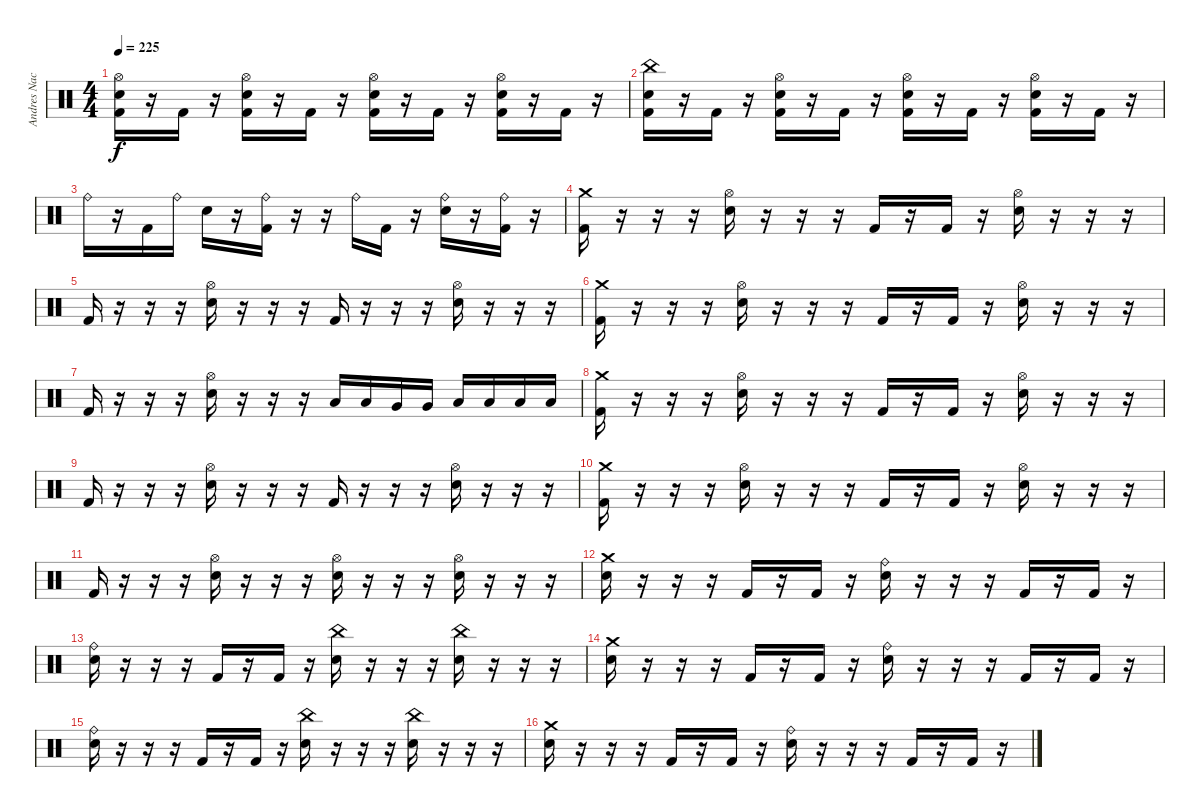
\track ("Andres Nacrur" "Andres Nac") {instrument percussion}
\staff {score}
\articulation defaults
\ts (4 4)
\tempo 225
\clef neutral
\ks c
("Hi-Hat (open)" "Snare (hit) 2" "Kick (hit) 2").16{dy f} r.16 "Kick (hit) 2".16 r.16 ("Hi-Hat (open)" "Snare (hit) 2" "Kick (hit) 2").16 r.16 "Kick (hit) 2".16 r.16 ("Hi-Hat (open)" "Snare (hit) 2" "Kick (hit) 2").16 r.16 "Kick (hit) 2".16 r.16 ("Hi-Hat (open)" "Snare (hit) 2" "Kick (hit) 2").16 r.16 "Kick (hit) 2".16 r.16 |
("China (hit)" "Snare (hit) 2" "Kick (hit) 2").16 r.16 "Kick (hit) 2".16 r.16 ("Hi-Hat (open)" "Snare (hit) 2" "Kick (hit) 2").16 r.16 "Kick (hit) 2".16 r.16 ("Hi-Hat (open)" "Snare (hit) 2" "Kick (hit) 2").16 r.16 "Kick (hit) 2".16 r.16 ("Hi-Hat (open)" "Snare (hit) 2" "Kick (hit) 2").16 r.16 "Kick (hit) 2".16 r.16 |
"Ride (bell)".16 r.16 "Kick (hit) 2".16 "Ride (bell)".16 "Snare (hit) 2".16 r.16 ("Ride (bell)" "Kick (hit) 2").16 r.16 r.16 "Ride (bell)".16 "Kick (hit) 2".16 r.16 ("Ride (bell)" "Snare (hit) 2").16 r.16 ("Ride (bell)" "Kick (hit) 2").16 r.16 |
("Crash medium (hit)" "Kick (hit) 2").16 r.16 r.16 r.16 ("Hi-Hat (open)" "Snare (hit) 2").16 r.16 r.16 r.16 "Kick (hit) 2".16 r.16 "Kick (hit) 2".16 r.16 ("Hi-Hat (open)" "Snare (hit) 2").16 r.16 r.16 r.16 |
"Kick (hit) 2".16 r.16 r.16 r.16 ("Hi-Hat (open)" "Snare (hit) 2").16 r.16 r.16 r.16 "Kick (hit) 2".16 r.16 r.16 r.16 ("Hi-Hat (open)" "Snare (hit) 2").16 r.16 r.16 r.16 |
("Crash medium (hit)" "Kick (hit) 2").16 r.16 r.16 r.16 ("Hi-Hat (open)" "Snare (hit) 2").16 r.16 r.16 r.16 "Kick (hit) 2".16 r.16 "Kick (hit) 2".16 r.16 ("Hi-Hat (open)" "Snare (hit) 2").16 r.16 r.16 r.16 |
"Kick (hit) 2".16 r.16 r.16 r.16 ("Hi-Hat (open)" "Snare (hit) 2").16 r.16 r.16 r.16 "Low Tom (hit)".16 "Low Tom (hit)".16 "Very Low Tom (hit)".16 "Very Low Tom (hit)".16 "Low Floor Tom (hit)".16 "Low Floor Tom (hit)".16 "Low Floor Tom (hit)".16 "Low Floor Tom (hit)".16 |
("Crash medium (hit)" "Kick (hit) 2").16 r.16 r.16 r.16 ("Hi-Hat (open)" "Snare (hit) 2").16 r.16 r.16 r.16 "Kick (hit) 2".16 r.16 "Kick (hit) 2".16 r.16 ("Hi-Hat (open)" "Snare (hit) 2").16 r.16 r.16 r.16 |
"Kick (hit) 2".16 r.16 r.16 r.16 ("Hi-Hat (open)" "Snare (hit) 2").16 r.16 r.16 r.16 "Kick (hit) 2".16 r.16 r.16 r.16 ("Hi-Hat (open)" "Snare (hit) 2").16 r.16 r.16 r.16 |
("Crash medium (hit)" "Kick (hit) 2").16 r.16 r.16 r.16 ("Hi-Hat (open)" "Snare (hit) 2").16 r.16 r.16 r.16 "Kick (hit) 2".16 r.16 "Kick (hit) 2".16 r.16 ("Hi-Hat (open)" "Snare (hit) 2").16 r.16 r.16 r.16 |
"Kick (hit) 2".16 r.16 r.16 r.16 ("Hi-Hat (open)" "Snare (hit) 2").16 r.16 r.16 r.16 ("Hi-Hat (open)" "Snare (hit) 2").16 r.16 r.16 r.16 ("Hi-Hat (open)" "Snare (hit) 2").16 r.16 r.16 r.16 |
("Crash medium (hit)" "Snare (hit) 2").16 r.16 r.16 r.16 "Kick (hit) 2".16 r.16 "Kick (hit) 2".16 r.16 ("Ride (bell)" "Snare (hit) 2").16 r.16 r.16 r.16 "Kick (hit) 2".16 r.16 "Kick (hit) 2".16 r.16 |
("Ride (bell)" "Snare (hit) 2").16 r.16 r.16 r.16 "Kick (hit) 2".16 r.16 "Kick (hit) 2".16 r.16 ("China (hit)" "Snare (hit) 2").16 r.16 r.16 r.16 ("China (hit)" "Snare (hit) 2").16 r.16 r.16 r.16 |
("Crash medium (hit)" "Snare (hit) 2").16 r.16 r.16 r.16 "Kick (hit) 2".16 r.16 "Kick (hit) 2".16 r.16 ("Ride (bell)" "Snare (hit) 2").16 r.16 r.16 r.16 "Kick (hit) 2".16 r.16 "Kick (hit) 2".16 r.16 |
("Ride (bell)" "Snare (hit) 2").16 r.16 r.16 r.16 "Kick (hit) 2".16 r.16 "Kick (hit) 2".16 r.16 ("China (hit)" "Snare (hit) 2").16 r.16 r.16 r.16 ("China (hit)" "Snare (hit) 2").16 r.16 r.16 r.16 |
("Crash medium (hit)" "Snare (hit) 2").16 r.16 r.16 r.16 "Kick (hit) 2".16 r.16 "Kick (hit) 2".16 r.16 ("Ride (bell)" "Snare (hit) 2").16 r.16 r.16 r.16 "Kick (hit) 2".16 r.16 "Kick (hit) 2".16 r.16
